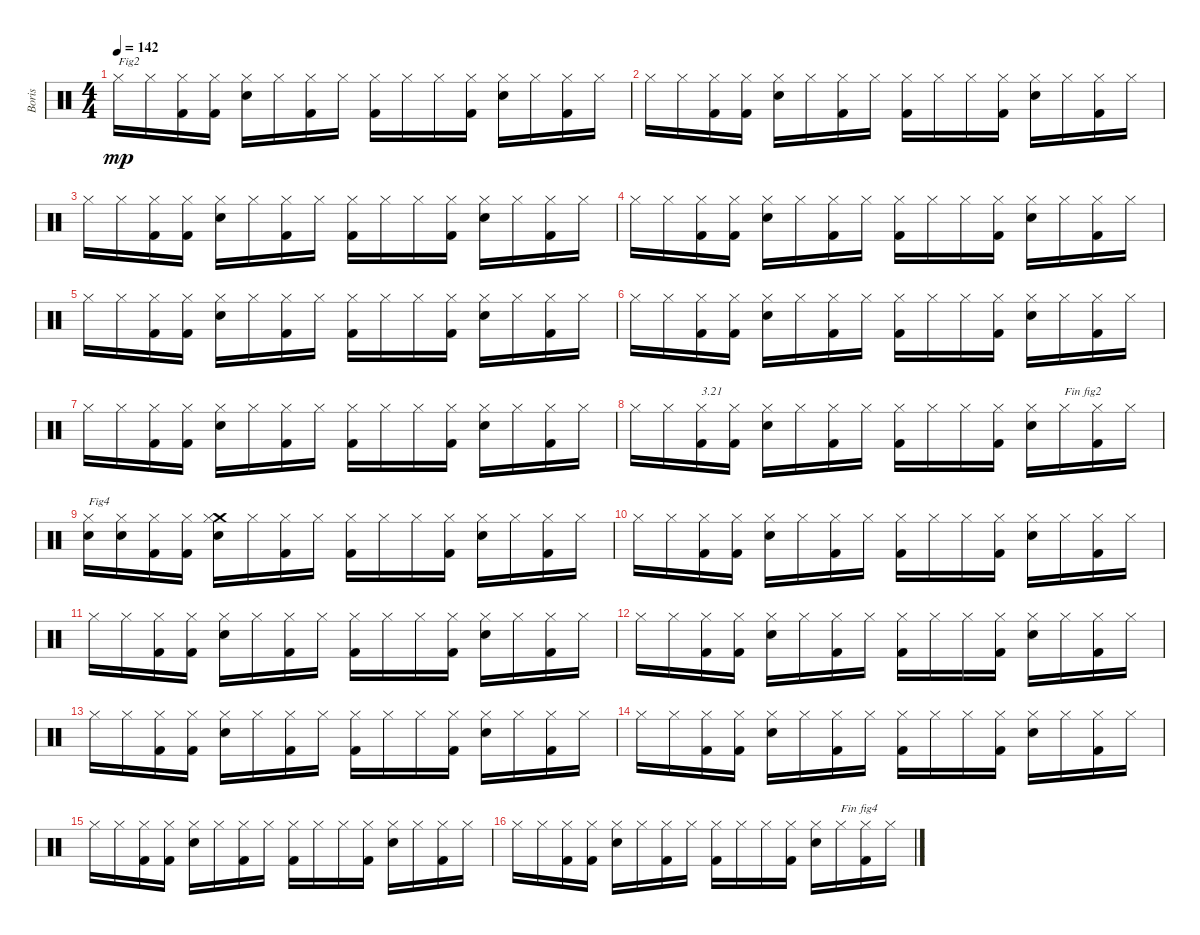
\track ("Boris" "Boris") {instrument percussion}
\staff {score}
\articulation defaults
\ts (4 4)
\tempo 142
\clef neutral
\ks c "Hi-Hat (closed)".16{txt "Fig2" dy mp} "Hi-Hat (closed)".16
("Kick (hit) 2" "Hi-Hat (closed)").16 ("Kick (hit) 2" "Hi-Hat (closed)").16 ("Snare (hit) 2" "Hi-Hat (closed)").16 "Hi-Hat (closed)".16 ("Kick (hit) 2" "Hi-Hat (closed)").16 "Hi-Hat (closed)".16 ("Kick (hit) 2" "Hi-Hat (closed)").16 "Hi-Hat (closed)".16 "Hi-Hat (closed)".16 ("Kick (hit) 2" "Hi-Hat (closed)").16 ("Snare (hit) 2" "Hi-Hat (closed)").16 "Hi-Hat (closed)".16 ("Kick (hit) 2" "Hi-Hat (closed)").16 "Hi-Hat (closed)".16 |
"Hi-Hat (closed)".16 "Hi-Hat (closed)".16 ("Kick (hit) 2" "Hi-Hat (closed)").16 ("Kick (hit) 2" "Hi-Hat (closed)").16 ("Snare (hit) 2" "Hi-Hat (closed)").16 "Hi-Hat (closed)".16 ("Kick (hit) 2" "Hi-Hat (closed)").16 "Hi-Hat (closed)".16 ("Kick (hit) 2" "Hi-Hat (closed)").16 "Hi-Hat (closed)".16 "Hi-Hat (closed)".16 ("Kick (hit) 2" "Hi-Hat (closed)").16 ("Snare (hit) 2" "Hi-Hat (closed)").16 "Hi-Hat (closed)".16 ("Kick (hit) 2" "Hi-Hat (closed)").16 "Hi-Hat (closed)".16 |
"Hi-Hat (closed)".16 "Hi-Hat (closed)".16 ("Kick (hit) 2" "Hi-Hat (closed)").16 ("Kick (hit) 2" "Hi-Hat (closed)").16 ("Snare (hit) 2" "Hi-Hat (closed)").16 "Hi-Hat (closed)".16 ("Kick (hit) 2" "Hi-Hat (closed)").16 "Hi-Hat (closed)".16 ("Kick (hit) 2" "Hi-Hat (closed)").16 "Hi-Hat (closed)".16 "Hi-Hat (closed)".16 ("Kick (hit) 2" "Hi-Hat (closed)").16 ("Snare (hit) 2" "Hi-Hat (closed)").16 "Hi-Hat (closed)".16 ("Kick (hit) 2" "Hi-Hat (closed)").16 "Hi-Hat (closed)".16 |
"Hi-Hat (closed)".16 "Hi-Hat (closed)".16 ("Kick (hit) 2" "Hi-Hat (closed)").16 ("Kick (hit) 2" "Hi-Hat (closed)").16 ("Snare (hit) 2" "Hi-Hat (closed)").16 "Hi-Hat (closed)".16 ("Kick (hit) 2" "Hi-Hat (closed)").16 "Hi-Hat (closed)".16 ("Kick (hit) 2" "Hi-Hat (closed)").16 "Hi-Hat (closed)".16 "Hi-Hat (closed)".16 ("Kick (hit) 2" "Hi-Hat (closed)").16 ("Snare (hit) 2" "Hi-Hat (closed)").16 "Hi-Hat (closed)".16 ("Kick (hit) 2" "Hi-Hat (closed)").16 "Hi-Hat (closed)".16 |
"Hi-Hat (closed)".16 "Hi-Hat (closed)".16 ("Kick (hit) 2" "Hi-Hat (closed)").16 ("Kick (hit) 2" "Hi-Hat (closed)").16 ("Snare (hit) 2" "Hi-Hat (closed)").16 "Hi-Hat (closed)".16 ("Kick (hit) 2" "Hi-Hat (closed)").16 "Hi-Hat (closed)".16 ("Kick (hit) 2" "Hi-Hat (closed)").16 "Hi-Hat (closed)".16 "Hi-Hat (closed)".16 ("Kick (hit) 2" "Hi-Hat (closed)").16 ("Snare (hit) 2" "Hi-Hat (closed)").16 "Hi-Hat (closed)".16 ("Kick (hit) 2" "Hi-Hat (closed)").16 "Hi-Hat (closed)".16 |
"Hi-Hat (closed)".16 "Hi-Hat (closed)".16 ("Kick (hit) 2" "Hi-Hat (closed)").16 ("Kick (hit) 2" "Hi-Hat (closed)").16 ("Snare (hit) 2" "Hi-Hat (closed)").16 "Hi-Hat (closed)".16 ("Kick (hit) 2" "Hi-Hat (closed)").16 "Hi-Hat (closed)".16 ("Kick (hit) 2" "Hi-Hat (closed)").16 "Hi-Hat (closed)".16 "Hi-Hat (closed)".16 ("Kick (hit) 2" "Hi-Hat (closed)").16 ("Snare (hit) 2" "Hi-Hat (closed)").16 "Hi-Hat (closed)".16 ("Kick (hit) 2" "Hi-Hat (closed)").16 "Hi-Hat (closed)".16 |
"Hi-Hat (closed)".16 "Hi-Hat (closed)".16 ("Kick (hit) 2" "Hi-Hat (closed)").16 ("Kick (hit) 2" "Hi-Hat (closed)").16 ("Snare (hit) 2" "Hi-Hat (closed)").16 "Hi-Hat (closed)".16 ("Kick (hit) 2" "Hi-Hat (closed)").16 "Hi-Hat (closed)".16 ("Kick (hit) 2" "Hi-Hat (closed)").16 "Hi-Hat (closed)".16 "Hi-Hat (closed)".16 ("Kick (hit) 2" "Hi-Hat (closed)").16 ("Snare (hit) 2" "Hi-Hat (closed)").16 "Hi-Hat (closed)".16 ("Kick (hit) 2" "Hi-Hat (closed)").16 "Hi-Hat (closed)".16 |
"Hi-Hat (closed)".16 "Hi-Hat (closed)".16 ("Kick (hit) 2" "Hi-Hat (closed)").16{txt "3.21"} ("Kick (hit) 2" "Hi-Hat (closed)").16 ("Snare (hit) 2" "Hi-Hat (closed)").16 "Hi-Hat (closed)".16 ("Kick (hit) 2" "Hi-Hat (closed)").16 "Hi-Hat (closed)".16 ("Kick (hit) 2" "Hi-Hat (closed)").16 "Hi-Hat (closed)".16 "Hi-Hat (closed)".16 ("Kick (hit) 2" "Hi-Hat (closed)").16 ("Snare (hit) 2" "Hi-Hat (closed)").16 "Hi-Hat (closed)".16{txt "Fin fig2"} ("Kick (hit) 2" "Hi-Hat (closed)").16 "Hi-Hat (closed)".16 |
("Snare (hit) 2" "Hi-Hat (closed)").16{txt "Fig4"} ("Snare (hit) 2" "Hi-Hat (closed)").16 ("Kick (hit) 2" "Hi-Hat (closed)").16 ("Kick (hit) 2" "Hi-Hat (closed)").16 ("Snare (hit) 2" "Crash medium (hit)" "Hi-Hat (closed)").16 "Hi-Hat (closed)".16 ("Kick (hit) 2" "Hi-Hat (closed)").16 "Hi-Hat (closed)".16 ("Kick (hit) 2" "Hi-Hat (closed)").16 "Hi-Hat (closed)".16 "Hi-Hat (closed)".16 ("Kick (hit) 2" "Hi-Hat (closed)").16 ("Snare (hit) 2" "Hi-Hat (closed)").16 "Hi-Hat (closed)".16 ("Kick (hit) 2" "Hi-Hat (closed)").16 "Hi-Hat (closed)".16 |
"Hi-Hat (closed)".16 "Hi-Hat (closed)".16 ("Kick (hit) 2" "Hi-Hat (closed)").16 ("Kick (hit) 2" "Hi-Hat (closed)").16 ("Snare (hit) 2" "Hi-Hat (closed)").16 "Hi-Hat (closed)".16 ("Kick (hit) 2" "Hi-Hat (closed)").16 "Hi-Hat (closed)".16 ("Kick (hit) 2" "Hi-Hat (closed)").16 "Hi-Hat (closed)".16 "Hi-Hat (closed)".16 ("Kick (hit) 2" "Hi-Hat (closed)").16 ("Snare (hit) 2" "Hi-Hat (closed)").16 "Hi-Hat (closed)".16 ("Kick (hit) 2" "Hi-Hat (closed)").16 "Hi-Hat (closed)".16 |
"Hi-Hat (closed)".16 "Hi-Hat (closed)".16 ("Kick (hit) 2" "Hi-Hat (closed)").16 ("Kick (hit) 2" "Hi-Hat (closed)").16 ("Snare (hit) 2" "Hi-Hat (closed)").16 "Hi-Hat (closed)".16 ("Kick (hit) 2" "Hi-Hat (closed)").16 "Hi-Hat (closed)".16 ("Kick (hit) 2" "Hi-Hat (closed)").16 "Hi-Hat (closed)".16 "Hi-Hat (closed)".16 ("Kick (hit) 2" "Hi-Hat (closed)").16 ("Snare (hit) 2" "Hi-Hat (closed)").16 "Hi-Hat (closed)".16 ("Kick (hit) 2" "Hi-Hat (closed)").16 "Hi-Hat (closed)".16 |
"Hi-Hat (closed)".16 "Hi-Hat (closed)".16 ("Kick (hit) 2" "Hi-Hat (closed)").16 ("Kick (hit) 2" "Hi-Hat (closed)").16 ("Snare (hit) 2" "Hi-Hat (closed)").16 "Hi-Hat (closed)".16 ("Kick (hit) 2" "Hi-Hat (closed)").16 "Hi-Hat (closed)".16 ("Kick (hit) 2" "Hi-Hat (closed)").16 "Hi-Hat (closed)".16 "Hi-Hat (closed)".16 ("Kick (hit) 2" "Hi-Hat (closed)").16 ("Snare (hit) 2" "Hi-Hat (closed)").16 "Hi-Hat (closed)".16 ("Kick (hit) 2" "Hi-Hat (closed)").16 "Hi-Hat (closed)".16 |
"Hi-Hat (closed)".16 "Hi-Hat (closed)".16 ("Kick (hit) 2" "Hi-Hat (closed)").16 ("Kick (hit) 2" "Hi-Hat (closed)").16 ("Snare (hit) 2" "Hi-Hat (closed)").16 "Hi-Hat (closed)".16 ("Kick (hit) 2" "Hi-Hat (closed)").16 "Hi-Hat (closed)".16 ("Kick (hit) 2" "Hi-Hat (closed)").16 "Hi-Hat (closed)".16 "Hi-Hat (closed)".16 ("Kick (hit) 2" "Hi-Hat (closed)").16 ("Snare (hit) 2" "Hi-Hat (closed)").16 "Hi-Hat (closed)".16 ("Kick (hit) 2" "Hi-Hat (closed)").16 "Hi-Hat (closed)".16 |
"Hi-Hat (closed)".16 "Hi-Hat (closed)".16 ("Kick (hit) 2" "Hi-Hat (closed)").16 ("Kick (hit) 2" "Hi-Hat (closed)").16 ("Snare (hit) 2" "Hi-Hat (closed)").16 "Hi-Hat (closed)".16 ("Kick (hit) 2" "Hi-Hat (closed)").16 "Hi-Hat (closed)".16 ("Kick (hit) 2" "Hi-Hat (closed)").16 "Hi-Hat (closed)".16 "Hi-Hat (closed)".16 ("Kick (hit) 2" "Hi-Hat (closed)").16 ("Snare (hit) 2" "Hi-Hat (closed)").16 "Hi-Hat (closed)".16 ("Kick (hit) 2" "Hi-Hat (closed)").16 "Hi-Hat (closed)".16 |
"Hi-Hat (closed)".16 "Hi-Hat (closed)".16 ("Kick (hit) 2" "Hi-Hat (closed)").16 ("Kick (hit) 2" "Hi-Hat (closed)").16 ("Snare (hit) 2" "Hi-Hat (closed)").16 "Hi-Hat (closed)".16 ("Kick (hit) 2" "Hi-Hat (closed)").16 "Hi-Hat (closed)".16 ("Kick (hit) 2" "Hi-Hat (closed)").16 "Hi-Hat (closed)".16 "Hi-Hat (closed)".16 ("Kick (hit) 2" "Hi-Hat (closed)").16 ("Snare (hit) 2" "Hi-Hat (closed)").16 "Hi-Hat (closed)".16 ("Kick (hit) 2" "Hi-Hat (closed)").16 "Hi-Hat (closed)".16 |
"Hi-Hat (closed)".16 "Hi-Hat (closed)".16 ("Kick (hit) 2" "Hi-Hat (closed)").16 ("Kick (hit) 2" "Hi-Hat (closed)").16 ("Snare (hit) 2" "Hi-Hat (closed)").16 "Hi-Hat (closed)".16 ("Kick (hit) 2" "Hi-Hat (closed)").16 "Hi-Hat (closed)".16 ("Kick (hit) 2" "Hi-Hat (closed)").16 "Hi-Hat (closed)".16 "Hi-Hat (closed)".16 ("Kick (hit) 2" "Hi-Hat (closed)").16 ("Snare (hit) 2" "Hi-Hat (closed)").16 "Hi-Hat (closed)".16{txt "Fin fig4"} ("Kick (hit) 2" "Hi-Hat (closed)").16 "Hi-Hat (closed)".16
